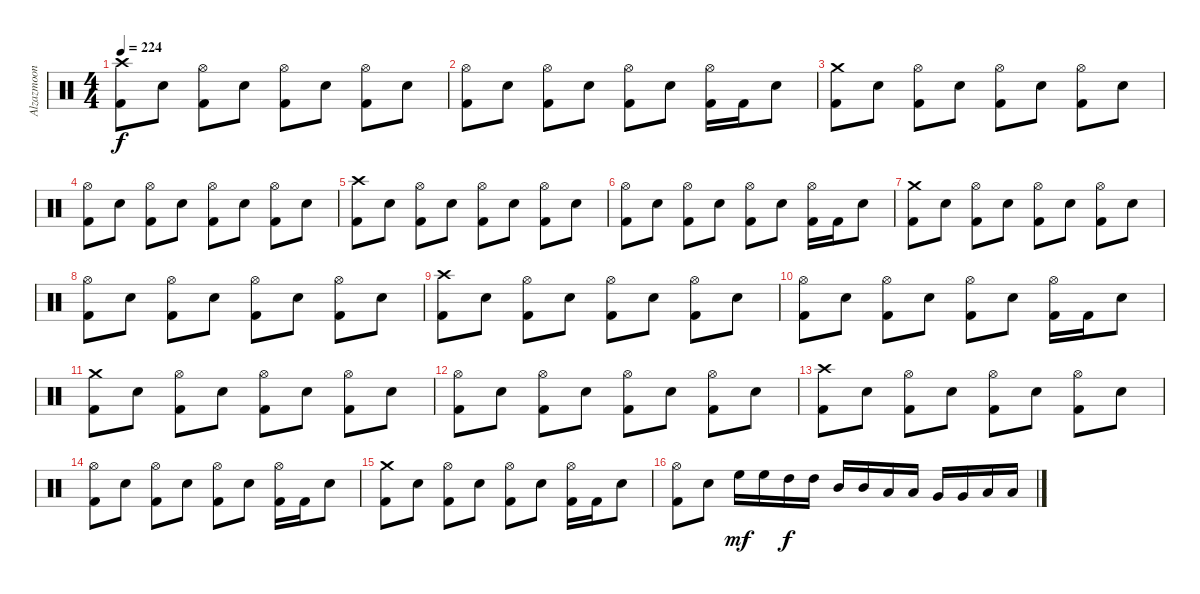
\track ("Alzazmoon" "Alzazmoon") {instrument percussion}
\staff {score}
\articulation defaults
\ts (4 4)
\tempo 224
\clef neutral
\ks c
("Crash high (hit)" "Kick (hit) 2").8{dy f} "Snare (hit) 2".8 ("Hi-Hat (open)" "Kick (hit) 2").8 "Snare (hit) 2".8 ("Hi-Hat (open)" "Kick (hit) 2").8 "Snare (hit) 2".8 ("Hi-Hat (open)" "Kick (hit) 2").8 "Snare (hit) 2".8 |
("Hi-Hat (open)" "Kick (hit) 2").8 "Snare (hit) 2".8 ("Hi-Hat (open)" "Kick (hit) 2").8 "Snare (hit) 2".8 ("Hi-Hat (open)" "Kick (hit) 2").8 "Snare (hit) 2".8 ("Hi-Hat (open)" "Kick (hit) 2").16 "Kick (hit) 2".16 "Snare (hit) 2".8 |
("Crash medium (hit)" "Kick (hit) 2").8 "Snare (hit) 2".8 ("Hi-Hat (open)" "Kick (hit) 2").8 "Snare (hit) 2".8 ("Hi-Hat (open)" "Kick (hit) 2").8 "Snare (hit) 2".8 ("Hi-Hat (open)" "Kick (hit) 2").8 "Snare (hit) 2".8 |
("Hi-Hat (open)" "Kick (hit) 2").8 "Snare (hit) 2".8 ("Hi-Hat (open)" "Kick (hit) 2").8 "Snare (hit) 2".8 ("Hi-Hat (open)" "Kick (hit) 2").8 "Snare (hit) 2".8 ("Hi-Hat (open)" "Kick (hit) 2").8 "Snare (hit) 2".8 |
("Crash high (hit)" "Kick (hit) 2").8 "Snare (hit) 2".8 ("Hi-Hat (open)" "Kick (hit) 2").8 "Snare (hit) 2".8 ("Hi-Hat (open)" "Kick (hit) 2").8 "Snare (hit) 2".8 ("Hi-Hat (open)" "Kick (hit) 2").8 "Snare (hit) 2".8 |
("Hi-Hat (open)" "Kick (hit) 2").8 "Snare (hit) 2".8 ("Hi-Hat (open)" "Kick (hit) 2").8 "Snare (hit) 2".8 ("Hi-Hat (open)" "Kick (hit) 2").8 "Snare (hit) 2".8 ("Hi-Hat (open)" "Kick (hit) 2").16 "Kick (hit) 2".16 "Snare (hit) 2".8 |
("Crash medium (hit)" "Kick (hit) 2").8 "Snare (hit) 2".8 ("Hi-Hat (open)" "Kick (hit) 2").8 "Snare (hit) 2".8 ("Hi-Hat (open)" "Kick (hit) 2").8 "Snare (hit) 2".8 ("Hi-Hat (open)" "Kick (hit) 2").8 "Snare (hit) 2".8 |
("Hi-Hat (open)" "Kick (hit) 2").8 "Snare (hit) 2".8 ("Hi-Hat (open)" "Kick (hit) 2").8 "Snare (hit) 2".8 ("Hi-Hat (open)" "Kick (hit) 2").8 "Snare (hit) 2".8 ("Hi-Hat (open)" "Kick (hit) 2").8 "Snare (hit) 2".8 |
("Crash high (hit)" "Kick (hit) 2").8 "Snare (hit) 2".8 ("Hi-Hat (open)" "Kick (hit) 2").8 "Snare (hit) 2".8 ("Hi-Hat (open)" "Kick (hit) 2").8 "Snare (hit) 2".8 ("Hi-Hat (open)" "Kick (hit) 2").8 "Snare (hit) 2".8 |
("Hi-Hat (open)" "Kick (hit) 2").8 "Snare (hit) 2".8 ("Hi-Hat (open)" "Kick (hit) 2").8 "Snare (hit) 2".8 ("Hi-Hat (open)" "Kick (hit) 2").8 "Snare (hit) 2".8 ("Hi-Hat (open)" "Kick (hit) 2").16 "Kick (hit) 2".16 "Snare (hit) 2".8 |
("Crash medium (hit)" "Kick (hit) 2").8 "Snare (hit) 2".8 ("Hi-Hat (open)" "Kick (hit) 2").8 "Snare (hit) 2".8 ("Hi-Hat (open)" "Kick (hit) 2").8 "Snare (hit) 2".8 ("Hi-Hat (open)" "Kick (hit) 2").8 "Snare (hit) 2".8 |
("Hi-Hat (open)" "Kick (hit) 2").8 "Snare (hit) 2".8 ("Hi-Hat (open)" "Kick (hit) 2").8 "Snare (hit) 2".8 ("Hi-Hat (open)" "Kick (hit) 2").8 "Snare (hit) 2".8 ("Hi-Hat (open)" "Kick (hit) 2").8 "Snare (hit) 2".8 |
("Crash high (hit)" "Kick (hit) 2").8 "Snare (hit) 2".8 ("Hi-Hat (open)" "Kick (hit) 2").8 "Snare (hit) 2".8 ("Hi-Hat (open)" "Kick (hit) 2").8 "Snare (hit) 2".8 ("Hi-Hat (open)" "Kick (hit) 2").8 "Snare (hit) 2".8 |
("Hi-Hat (open)" "Kick (hit) 2").8 "Snare (hit) 2".8 ("Hi-Hat (open)" "Kick (hit) 2").8 "Snare (hit) 2".8 ("Hi-Hat (open)" "Kick (hit) 2").8 "Snare (hit) 2".8 ("Hi-Hat (open)" "Kick (hit) 2").16 "Kick (hit) 2".16 "Snare (hit) 2".8 |
("Crash medium (hit)" "Kick (hit) 2").8 "Snare (hit) 2".8 ("Hi-Hat (open)" "Kick (hit) 2").8 "Snare (hit) 2".8 ("Hi-Hat (open)" "Kick (hit) 2").8 "Snare (hit) 2".8 ("Hi-Hat (open)" "Kick (hit) 2").16 "Kick (hit) 2".16 "Snare (hit) 2".8 |
("Hi-Hat (open)" "Kick (hit) 2").8 "Snare (hit) 2".8 "High Floor Tom (hit)".16{dy mf} "High Floor Tom (hit)".16 "High Tom (hit)".16{dy f} "High Tom (hit)".16 "Mid Tom (hit)".16 "Mid Tom (hit)".16 "Low Tom (hit)".16 "Low Tom (hit)".16 "Very Low Tom (hit)".16 "Very Low Tom (hit)".16 "Low Floor Tom (hit)".16 "Low Floor Tom (hit)".16
